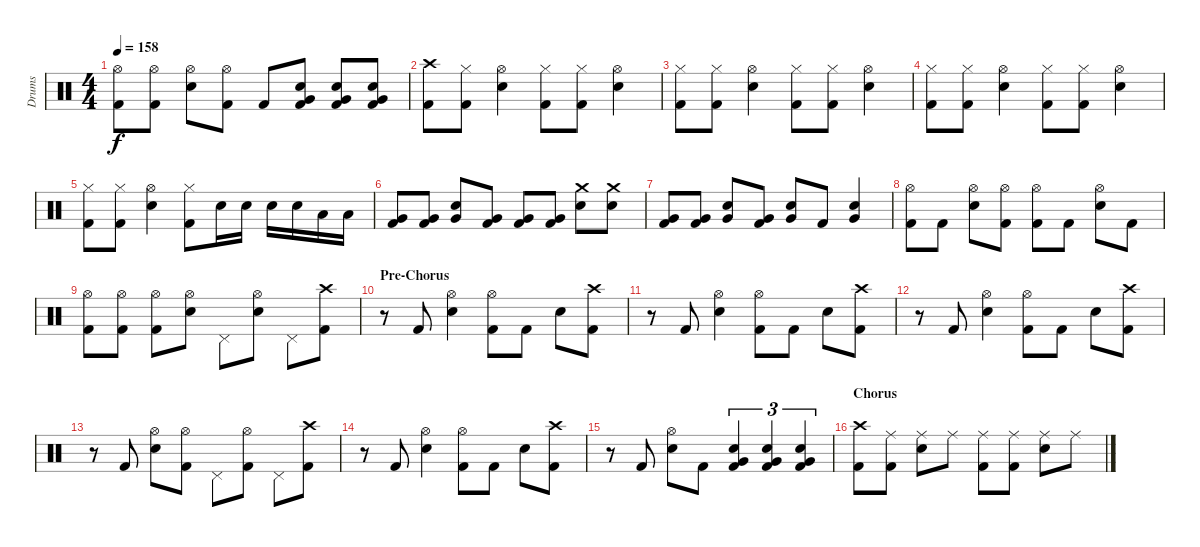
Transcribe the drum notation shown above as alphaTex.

\track ("Drums" "Drums") {instrument percussion}
\staff {score}
\articulation defaults
\ts (4 4)
\tempo 158
\clef neutral
\ks c
("Hi-Hat (open)" "Kick (hit) 2").8{dy f} ("Hi-Hat (open)" "Kick (hit) 2").8 ("Hi-Hat (open)" "Snare (hit) 2").8 ("Hi-Hat (open)" "Kick (hit) 2").8 "Kick (hit) 2".8 ("Snare (hit) 2" "Very Low Tom (hit)" "Kick (hit) 2").8 ("Snare (hit) 2" "Very Low Tom (hit)" "Kick (hit) 2").8 ("Snare (hit) 2" "Very Low Tom (hit)" "Kick (hit) 2").8 |
("Crash high (hit)" "Kick (hit) 2").8 ("Hi-Hat (closed)" "Kick (hit) 2").8 ("Hi-Hat (open)" "Snare (hit) 2").4 ("Hi-Hat (closed)" "Kick (hit) 2").8 ("Hi-Hat (closed)" "Kick (hit) 2").8 ("Hi-Hat (open)" "Snare (hit) 2").4 |
("Hi-Hat (closed)" "Kick (hit) 2").8 ("Hi-Hat (closed)" "Kick (hit) 2").8 ("Hi-Hat (open)" "Snare (hit) 2").4 ("Hi-Hat (closed)" "Kick (hit) 2").8 ("Hi-Hat (closed)" "Kick (hit) 2").8 ("Hi-Hat (open)" "Snare (hit) 2").4 |
("Hi-Hat (closed)" "Kick (hit) 2").8 ("Hi-Hat (closed)" "Kick (hit) 2").8 ("Hi-Hat (open)" "Snare (hit) 2").4 ("Hi-Hat (closed)" "Kick (hit) 2").8 ("Hi-Hat (closed)" "Kick (hit) 2").8 ("Hi-Hat (open)" "Snare (hit) 2").4 |
("Hi-Hat (closed)" "Kick (hit) 2").8 ("Hi-Hat (closed)" "Kick (hit) 2").8 ("Hi-Hat (open)" "Snare (hit) 2").4 ("Hi-Hat (closed)" "Kick (hit) 2").8 "Snare (hit) 2".16 "Snare (hit) 2".16 "Snare (hit) 2".16 "Snare (hit) 2".16 "Low Tom (hit)".16 "Low Tom (hit)".16 |
("Very Low Tom (hit)" "Kick (hit) 2").8 ("Very Low Tom (hit)" "Kick (hit) 2").8 ("Snare (hit) 2" "Very Low Tom (hit)").8 ("Very Low Tom (hit)" "Kick (hit) 2").8 ("Very Low Tom (hit)" "Kick (hit) 2").8 ("Very Low Tom (hit)" "Kick (hit) 2").8 ("Crash medium (hit)" "Snare (hit) 2").8 ("Crash medium (hit)" "Snare (hit) 2").8 |
("Very Low Tom (hit)" "Kick (hit) 2").8 ("Very Low Tom (hit)" "Kick (hit) 2").8 ("Snare (hit) 2" "Very Low Tom (hit)").8 ("Very Low Tom (hit)" "Kick (hit) 2").8 ("Snare (hit) 2" "Very Low Tom (hit)").8 "Kick (hit) 2".8 ("Snare (hit) 2" "Very Low Tom (hit)").4 |
("Hi-Hat (open)" "Kick (hit) 2").8 "Kick (hit) 2".8 ("Hi-Hat (open)" "Snare (hit) 2").8 ("Hi-Hat (open)" "Kick (hit) 2").8 ("Hi-Hat (open)" "Kick (hit) 2").8 "Kick (hit) 2".8 ("Hi-Hat (open)" "Snare (hit) 2").8 "Kick (hit) 2".8 |
("Hi-Hat (open)" "Kick (hit) 2").8 ("Hi-Hat (open)" "Kick (hit) 2").8 ("Hi-Hat (open)" "Kick (hit) 2").8 ("Hi-Hat (open)" "Snare (hit) 2").8 "Pedal Hi-Hat (hit)".8 ("Hi-Hat (open)" "Snare (hit) 2").8 "Pedal Hi-Hat (hit)".8 ("Crash high (hit)" "Kick (hit) 2").8 |
\section ("" "Pre-Chorus")
r.8 "Kick (hit) 2".8 ("Hi-Hat (open)" "Snare (hit) 2").4 ("Hi-Hat (open)" "Kick (hit) 2").8 "Kick (hit) 2".8 "Snare (hit) 2".8 ("Crash high (hit)" "Kick (hit) 2").8 |
r.8 "Kick (hit) 2".8 ("Hi-Hat (open)" "Snare (hit) 2").4 ("Hi-Hat (open)" "Kick (hit) 2").8 "Kick (hit) 2".8 "Snare (hit) 2".8 ("Crash high (hit)" "Kick (hit) 2").8 |
r.8 "Kick (hit) 2".8 ("Hi-Hat (open)" "Snare (hit) 2").4 ("Hi-Hat (open)" "Kick (hit) 2").8 "Kick (hit) 2".8 "Snare (hit) 2".8 ("Crash high (hit)" "Kick (hit) 2").8 |
r.8 "Kick (hit) 2".8 ("Hi-Hat (open)" "Snare (hit) 2").8 ("Hi-Hat (open)" "Kick (hit) 2").8 "Pedal Hi-Hat (hit)".8 ("Hi-Hat (open)" "Kick (hit) 2").8 "Pedal Hi-Hat (hit)".8 ("Crash high (hit)" "Kick (hit) 2").8 |
r.8 "Kick (hit) 2".8 ("Hi-Hat (open)" "Snare (hit) 2").4 ("Hi-Hat (open)" "Kick (hit) 2").8 "Kick (hit) 2".8 "Snare (hit) 2".8 ("Crash high (hit)" "Kick (hit) 2").8 |
r.8 "Kick (hit) 2".8 ("Hi-Hat (open)" "Snare (hit) 2").8 "Kick (hit) 2".8 ("Snare (hit) 2" "Very Low Tom (hit)" "Kick (hit) 2").4{tu (3 2)} ("Snare (hit) 2" "Very Low Tom (hit)" "Kick (hit) 2").4{tu (3 2)} ("Snare (hit) 2" "Very Low Tom (hit)" "Kick (hit) 2").4{tu (3 2)} |
\section ("" "Chorus")
("Crash high (hit)" "Kick (hit) 2").8 ("Ride (middle)" "Kick (hit) 2").8 ("Ride (middle)" "Snare (hit) 2").8 "Ride (middle)".8 ("Ride (middle)" "Kick (hit) 2").8 ("Ride (middle)" "Kick (hit) 2").8 ("Ride (middle)" "Snare (hit) 2").8 "Ride (middle)".8
